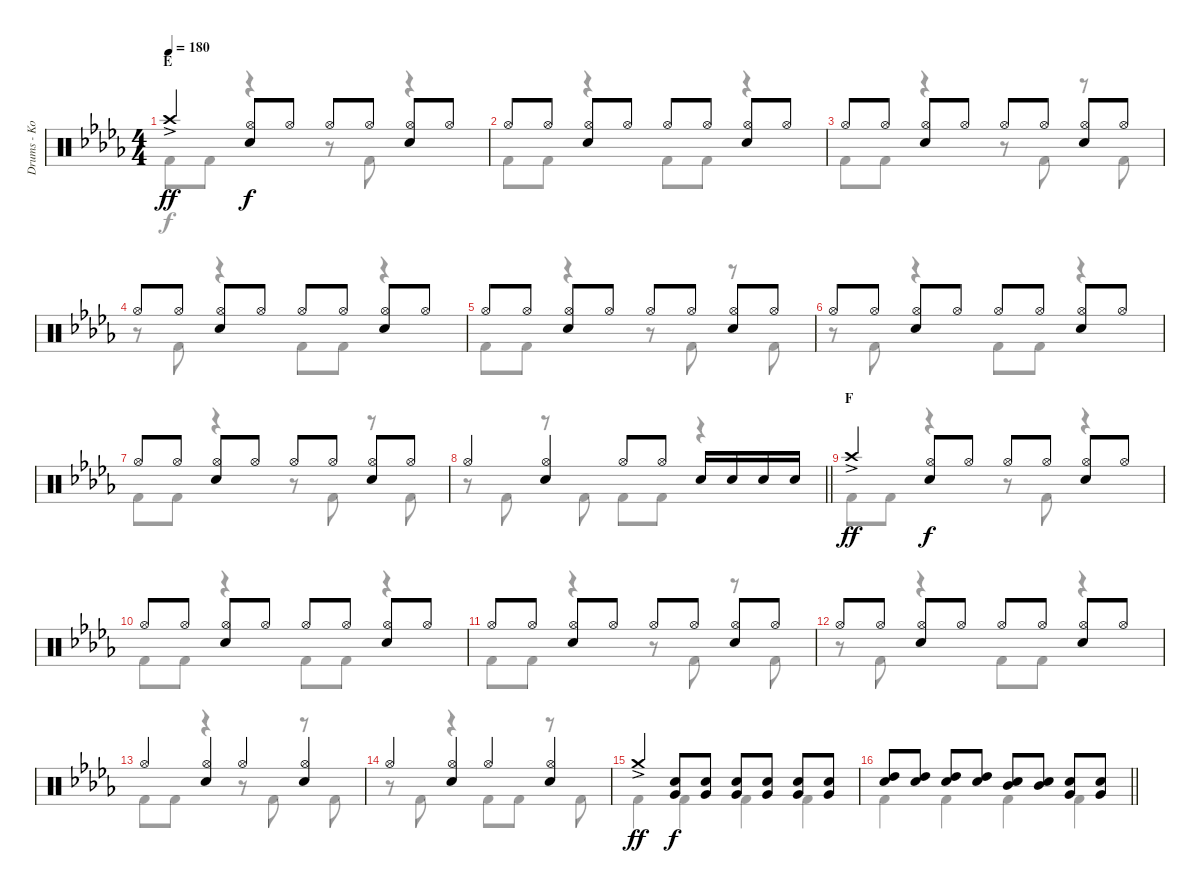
\track ("Drums - Koji Hasegawa" "Drums - Ko") {instrument percussion}
\staff {score}
\articulation defaults
\voice
\ts (4 4)
\section ("" "E")
\tempo 180
\clef neutral
\ks db "Crash high (hit)"{ac}.4{dy ff}
("Hi-Hat (open)" "Snare (hit) 2").8{dy f} "Hi-Hat (open)".8 "Hi-Hat (open)".8 "Hi-Hat (open)".8 ("Hi-Hat (open)" "Snare (hit) 2").8 "Hi-Hat (open)".8 |
"Hi-Hat (open)".8 "Hi-Hat (open)".8 ("Hi-Hat (open)" "Snare (hit) 2").8 "Hi-Hat (open)".8 "Hi-Hat (open)".8 "Hi-Hat (open)".8 ("Hi-Hat (open)" "Snare (hit) 2").8 "Hi-Hat (open)".8 |
"Hi-Hat (open)".8 "Hi-Hat (open)".8 ("Hi-Hat (open)" "Snare (hit) 2").8 "Hi-Hat (open)".8 "Hi-Hat (open)".8 "Hi-Hat (open)".8 ("Hi-Hat (open)" "Snare (hit) 2").8 "Hi-Hat (open)".8 |
"Hi-Hat (open)".8 "Hi-Hat (open)".8 ("Hi-Hat (open)" "Snare (hit) 2").8 "Hi-Hat (open)".8 "Hi-Hat (open)".8 "Hi-Hat (open)".8 ("Hi-Hat (open)" "Snare (hit) 2").8 "Hi-Hat (open)".8 |
"Hi-Hat (open)".8 "Hi-Hat (open)".8 ("Hi-Hat (open)" "Snare (hit) 2").8 "Hi-Hat (open)".8 "Hi-Hat (open)".8 "Hi-Hat (open)".8 ("Hi-Hat (open)" "Snare (hit) 2").8 "Hi-Hat (open)".8 |
"Hi-Hat (open)".8 "Hi-Hat (open)".8 ("Hi-Hat (open)" "Snare (hit) 2").8 "Hi-Hat (open)".8 "Hi-Hat (open)".8 "Hi-Hat (open)".8 ("Hi-Hat (open)" "Snare (hit) 2").8 "Hi-Hat (open)".8 |
"Hi-Hat (open)".8 "Hi-Hat (open)".8 ("Hi-Hat (open)" "Snare (hit) 2").8 "Hi-Hat (open)".8 "Hi-Hat (open)".8 "Hi-Hat (open)".8 ("Hi-Hat (open)" "Snare (hit) 2").8 "Hi-Hat (open)".8 |
\barLineRight lightlight "Hi-Hat (open)".4
("Hi-Hat (open)" "Snare (hit) 2").4 "Hi-Hat (open)".8 "Hi-Hat (open)".8 "Snare (hit) 2".16 "Snare (hit) 2".16 "Snare (hit) 2".16 "Snare (hit) 2".16 |
\section ("" "F")
"Crash high (hit)"{ac}.4{dy ff} ("Hi-Hat (open)" "Snare (hit) 2").8{dy f} "Hi-Hat (open)".8 "Hi-Hat (open)".8 "Hi-Hat (open)".8 ("Hi-Hat (open)" "Snare (hit) 2").8 "Hi-Hat (open)".8 |
"Hi-Hat (open)".8 "Hi-Hat (open)".8 ("Hi-Hat (open)" "Snare (hit) 2").8 "Hi-Hat (open)".8 "Hi-Hat (open)".8 "Hi-Hat (open)".8 ("Hi-Hat (open)" "Snare (hit) 2").8 "Hi-Hat (open)".8 |
"Hi-Hat (open)".8 "Hi-Hat (open)".8 ("Hi-Hat (open)" "Snare (hit) 2").8 "Hi-Hat (open)".8 "Hi-Hat (open)".8 "Hi-Hat (open)".8 ("Hi-Hat (open)" "Snare (hit) 2").8 "Hi-Hat (open)".8 |
"Hi-Hat (open)".8 "Hi-Hat (open)".8 ("Hi-Hat (open)" "Snare (hit) 2").8 "Hi-Hat (open)".8 "Hi-Hat (open)".8 "Hi-Hat (open)".8 ("Hi-Hat (open)" "Snare (hit) 2").8 "Hi-Hat (open)".8 |
"Hi-Hat (open)".4 ("Hi-Hat (open)" "Snare (hit) 2").4 "Hi-Hat (open)".4 ("Hi-Hat (open)" "Snare (hit) 2").4 |
"Hi-Hat (open)".4 ("Hi-Hat (open)" "Snare (hit) 2").4 "Hi-Hat (open)".4 ("Hi-Hat (open)" "Snare (hit) 2").4 |
"Crash medium (hit)"{ac}.4{dy ff} ("Very Low Tom (hit)" "Snare (hit) 2").8{dy f} ("Very Low Tom (hit)" "Snare (hit) 2").8 ("Very Low Tom (hit)" "Snare (hit) 2").8 ("Very Low Tom (hit)" "Snare (hit) 2").8 ("Very Low Tom (hit)" "Snare (hit) 2").8 ("Very Low Tom (hit)" "Snare (hit) 2").8 |
\barLineRight lightlight
("High Tom (hit)" "Snare (hit) 2").8 ("High Tom (hit)" "Snare (hit) 2").8 ("High Tom (hit)" "Snare (hit) 2").8 ("High Tom (hit)" "Snare (hit) 2").8 ("Mid Tom (hit)" "Snare (hit) 2").8 ("Mid Tom (hit)" "Snare (hit) 2").8 ("Very Low Tom (hit)" "Snare (hit) 2").8 ("Very Low Tom (hit)" "Snare (hit) 2").8
\voice
\clef neutral
\ottava regular
\simile none
\ks db "Kick (hit) 2".8{dy f} "Kick (hit) 2".8
r.4 r.8 "Kick (hit) 2".8 r.4 |
"Kick (hit) 2".8 "Kick (hit) 2".8 r.4 "Kick (hit) 2".8 "Kick (hit) 2".8 r.4 |
"Kick (hit) 2".8 "Kick (hit) 2".8 r.4 r.8 "Kick (hit) 2".8 r.8 "Kick (hit) 2".8 |
r.8 "Kick (hit) 2".8 r.4 "Kick (hit) 2".8 "Kick (hit) 2".8 r.4 |
"Kick (hit) 2".8 "Kick (hit) 2".8 r.4 r.8 "Kick (hit) 2".8 r.8 "Kick (hit) 2".8 |
r.8 "Kick (hit) 2".8 r.4 "Kick (hit) 2".8 "Kick (hit) 2".8 r.4 |
"Kick (hit) 2".8 "Kick (hit) 2".8 r.4 r.8 "Kick (hit) 2".8 r.8 "Kick (hit) 2".8 |
\barLineRight lightlight
r.8 "Kick (hit) 2".8 r.8 "Kick (hit) 2".8 "Kick (hit) 2".8 "Kick (hit) 2".8 r.4 |
"Kick (hit) 2".8 "Kick (hit) 2".8 r.4 r.8 "Kick (hit) 2".8 r.4 |
"Kick (hit) 2".8 "Kick (hit) 2".8 r.4 "Kick (hit) 2".8 "Kick (hit) 2".8 r.4 |
"Kick (hit) 2".8 "Kick (hit) 2".8 r.4 r.8 "Kick (hit) 2".8 r.8 "Kick (hit) 2".8 |
r.8 "Kick (hit) 2".8 r.4 "Kick (hit) 2".8 "Kick (hit) 2".8 r.4 |
"Kick (hit) 2".8 "Kick (hit) 2".8 r.4 r.8 "Kick (hit) 2".8 r.8 "Kick (hit) 2".8 |
r.8 "Kick (hit) 2".8 r.4 "Kick (hit) 2".8 "Kick (hit) 2".8 r.8 "Kick (hit) 2".8 |
"Kick (hit) 2".4 "Kick (hit) 2".4 "Kick (hit) 2".4 "Kick (hit) 2".4 |
\barLineRight lightlight "Kick (hit) 2".4 "Kick (hit) 2".4 "Kick (hit) 2".4 "Kick (hit) 2".4
